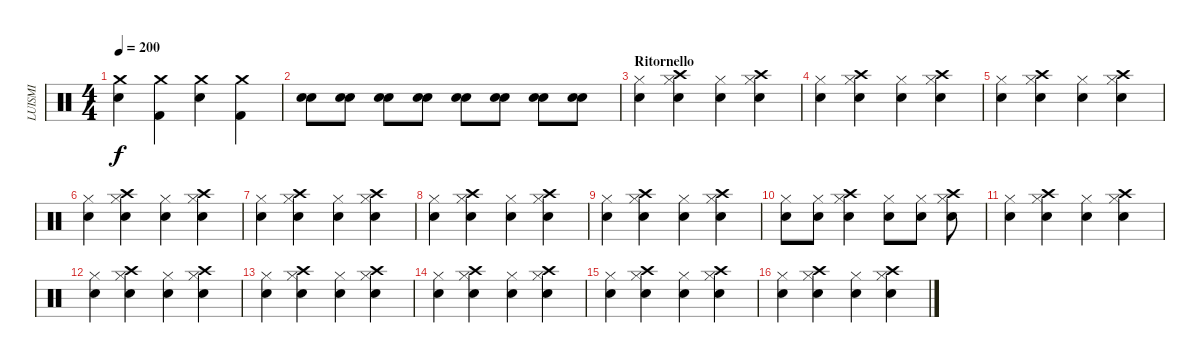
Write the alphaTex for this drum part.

\track ("LUISMI" "LUISMI") {instrument percussion}
\staff {score}
\articulation defaults
\ts (4 4)
\tempo 200
\clef neutral
\ks c
("Snare (hit) 2" "Crash medium (hit)").4{dy f} ("Kick (hit) 2" "Crash medium (hit)").4 ("Snare (hit) 2" "Crash medium (hit)").4 ("Kick (hit) 2" "Crash medium (hit)").4 |
("Electric Snare (hit)" "Snare (hit) 2").8 ("Electric Snare (hit)" "Snare (hit) 2").8 ("Electric Snare (hit)" "Snare (hit) 2").8 ("Electric Snare (hit)" "Snare (hit) 2").8 ("Electric Snare (hit)" "Snare (hit) 2").8 ("Electric Snare (hit)" "Snare (hit) 2").8 ("Electric Snare (hit)" "Snare (hit) 2").8 ("Electric Snare (hit)" "Snare (hit) 2").8 |
\section ("" "Ritornello")
("Hi-Hat (closed)" "Snare (hit) 2").4 ("Hi-Hat (closed)" "Snare (hit) 2" "Crash high (hit)").4 ("Hi-Hat (closed)" "Snare (hit) 2").4 ("Hi-Hat (closed)" "Snare (hit) 2" "Crash high (hit)").4 |
("Hi-Hat (closed)" "Snare (hit) 2").4 ("Hi-Hat (closed)" "Snare (hit) 2" "Crash high (hit)").4 ("Hi-Hat (closed)" "Snare (hit) 2").4 ("Hi-Hat (closed)" "Snare (hit) 2" "Crash high (hit)").4 |
("Hi-Hat (closed)" "Snare (hit) 2").4 ("Hi-Hat (closed)" "Snare (hit) 2" "Crash high (hit)").4 ("Hi-Hat (closed)" "Snare (hit) 2").4 ("Hi-Hat (closed)" "Snare (hit) 2" "Crash high (hit)").4 |
("Hi-Hat (closed)" "Snare (hit) 2").4 ("Hi-Hat (closed)" "Snare (hit) 2" "Crash high (hit)").4 ("Hi-Hat (closed)" "Snare (hit) 2").4 ("Hi-Hat (closed)" "Snare (hit) 2" "Crash high (hit)").4 |
("Hi-Hat (closed)" "Snare (hit) 2").4 ("Hi-Hat (closed)" "Snare (hit) 2" "Crash high (hit)").4 ("Hi-Hat (closed)" "Snare (hit) 2").4 ("Hi-Hat (closed)" "Snare (hit) 2" "Crash high (hit)").4 |
("Hi-Hat (closed)" "Snare (hit) 2").4 ("Hi-Hat (closed)" "Snare (hit) 2" "Crash high (hit)").4 ("Hi-Hat (closed)" "Snare (hit) 2").4 ("Hi-Hat (closed)" "Snare (hit) 2" "Crash high (hit)").4 |
("Hi-Hat (closed)" "Snare (hit) 2").4 ("Hi-Hat (closed)" "Snare (hit) 2" "Crash high (hit)").4 ("Hi-Hat (closed)" "Snare (hit) 2").4 ("Hi-Hat (closed)" "Snare (hit) 2" "Crash high (hit)").4 |
("Hi-Hat (closed)" "Snare (hit) 2").8 ("Hi-Hat (closed)" "Snare (hit) 2").8 ("Hi-Hat (closed)" "Snare (hit) 2" "Crash high (hit)").4 ("Hi-Hat (closed)" "Snare (hit) 2").8 ("Hi-Hat (closed)" "Snare (hit) 2").8 ("Hi-Hat (closed)" "Snare (hit) 2" "Crash high (hit)").8 |
("Hi-Hat (closed)" "Snare (hit) 2").4 ("Hi-Hat (closed)" "Snare (hit) 2" "Crash high (hit)").4 ("Hi-Hat (closed)" "Snare (hit) 2").4 ("Hi-Hat (closed)" "Snare (hit) 2" "Crash high (hit)").4 |
("Hi-Hat (closed)" "Snare (hit) 2").4 ("Hi-Hat (closed)" "Snare (hit) 2" "Crash high (hit)").4 ("Hi-Hat (closed)" "Snare (hit) 2").4 ("Hi-Hat (closed)" "Snare (hit) 2" "Crash high (hit)").4 |
("Hi-Hat (closed)" "Snare (hit) 2").4 ("Hi-Hat (closed)" "Snare (hit) 2" "Crash high (hit)").4 ("Hi-Hat (closed)" "Snare (hit) 2").4 ("Hi-Hat (closed)" "Snare (hit) 2" "Crash high (hit)").4 |
("Hi-Hat (closed)" "Snare (hit) 2").4 ("Hi-Hat (closed)" "Snare (hit) 2" "Crash high (hit)").4 ("Hi-Hat (closed)" "Snare (hit) 2").4 ("Hi-Hat (closed)" "Snare (hit) 2" "Crash high (hit)").4 |
("Hi-Hat (closed)" "Snare (hit) 2").4 ("Hi-Hat (closed)" "Snare (hit) 2" "Crash high (hit)").4 ("Hi-Hat (closed)" "Snare (hit) 2").4 ("Hi-Hat (closed)" "Snare (hit) 2" "Crash high (hit)").4 |
("Hi-Hat (closed)" "Snare (hit) 2").4 ("Hi-Hat (closed)" "Snare (hit) 2" "Crash high (hit)").4 ("Hi-Hat (closed)" "Snare (hit) 2").4 ("Hi-Hat (closed)" "Snare (hit) 2" "Crash high (hit)").4
